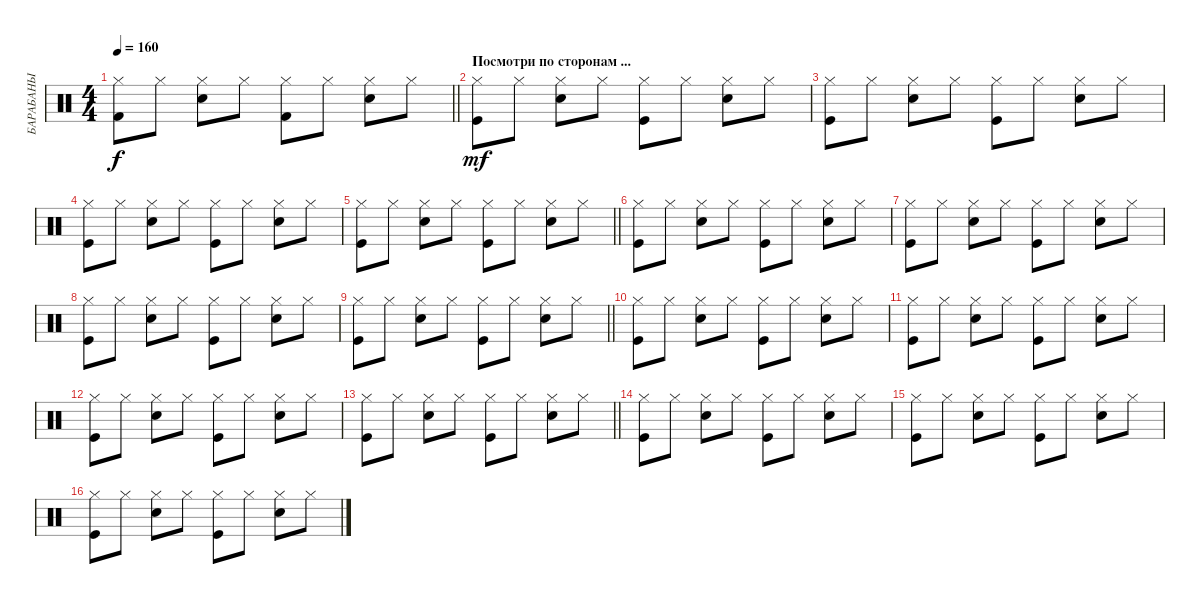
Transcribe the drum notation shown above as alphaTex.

\track ("БАРАБАНЫ" "БАРАБАНЫ") {instrument percussion}
\staff {score}
\articulation defaults
\ts (4 4)
\tempo 160
\clef neutral
\barLineRight lightlight
\ks c
("Hi-Hat (closed)" "Kick (hit) 2").8{dy f} "Hi-Hat (closed)".8 ("Hi-Hat (closed)" "Electric Snare (hit)").8 "Hi-Hat (closed)".8 ("Hi-Hat (closed)" "Kick (hit) 2").8 "Hi-Hat (closed)".8 ("Hi-Hat (closed)" "Electric Snare (hit)").8 "Hi-Hat (closed)".8 |
\section ("" "Посмотри по сторонам ...")
("Hi-Hat (closed)" "Kick (hit)").8{dy mf} "Hi-Hat (closed)".8 ("Hi-Hat (closed)" "Electric Snare (hit)").8 "Hi-Hat (closed)".8 ("Hi-Hat (closed)" "Kick (hit)").8 "Hi-Hat (closed)".8 ("Hi-Hat (closed)" "Electric Snare (hit)").8 "Hi-Hat (closed)".8 |
("Hi-Hat (closed)" "Kick (hit)").8 "Hi-Hat (closed)".8 ("Hi-Hat (closed)" "Electric Snare (hit)").8 "Hi-Hat (closed)".8 ("Hi-Hat (closed)" "Kick (hit)").8 "Hi-Hat (closed)".8 ("Hi-Hat (closed)" "Electric Snare (hit)").8 "Hi-Hat (closed)".8 |
("Hi-Hat (closed)" "Kick (hit)").8 "Hi-Hat (closed)".8 ("Hi-Hat (closed)" "Electric Snare (hit)").8 "Hi-Hat (closed)".8 ("Hi-Hat (closed)" "Kick (hit)").8 "Hi-Hat (closed)".8 ("Hi-Hat (closed)" "Electric Snare (hit)").8 "Hi-Hat (closed)".8 |
\barLineRight lightlight
("Hi-Hat (closed)" "Kick (hit)").8 "Hi-Hat (closed)".8 ("Hi-Hat (closed)" "Electric Snare (hit)").8 "Hi-Hat (closed)".8 ("Hi-Hat (closed)" "Kick (hit)").8 "Hi-Hat (closed)".8 ("Hi-Hat (closed)" "Electric Snare (hit)").8 "Hi-Hat (closed)".8 |
\section ("" "")
("Hi-Hat (closed)" "Kick (hit)").8 "Hi-Hat (closed)".8 ("Hi-Hat (closed)" "Electric Snare (hit)").8 "Hi-Hat (closed)".8 ("Hi-Hat (closed)" "Kick (hit)").8 "Hi-Hat (closed)".8 ("Hi-Hat (closed)" "Electric Snare (hit)").8 "Hi-Hat (closed)".8 |
("Hi-Hat (closed)" "Kick (hit)").8 "Hi-Hat (closed)".8 ("Hi-Hat (closed)" "Electric Snare (hit)").8 "Hi-Hat (closed)".8 ("Hi-Hat (closed)" "Kick (hit)").8 "Hi-Hat (closed)".8 ("Hi-Hat (closed)" "Electric Snare (hit)").8 "Hi-Hat (closed)".8 |
("Hi-Hat (closed)" "Kick (hit)").8 "Hi-Hat (closed)".8 ("Hi-Hat (closed)" "Electric Snare (hit)").8 "Hi-Hat (closed)".8 ("Hi-Hat (closed)" "Kick (hit)").8 "Hi-Hat (closed)".8 ("Hi-Hat (closed)" "Electric Snare (hit)").8 "Hi-Hat (closed)".8 |
\barLineRight lightlight
("Hi-Hat (closed)" "Kick (hit)").8 "Hi-Hat (closed)".8 ("Hi-Hat (closed)" "Electric Snare (hit)").8 "Hi-Hat (closed)".8 ("Hi-Hat (closed)" "Kick (hit)").8 "Hi-Hat (closed)".8 ("Hi-Hat (closed)" "Electric Snare (hit)").8 "Hi-Hat (closed)".8 |
("Hi-Hat (closed)" "Kick (hit)").8 "Hi-Hat (closed)".8 ("Hi-Hat (closed)" "Electric Snare (hit)").8 "Hi-Hat (closed)".8 ("Hi-Hat (closed)" "Kick (hit)").8 "Hi-Hat (closed)".8 ("Hi-Hat (closed)" "Electric Snare (hit)").8 "Hi-Hat (closed)".8 |
("Hi-Hat (closed)" "Kick (hit)").8 "Hi-Hat (closed)".8 ("Hi-Hat (closed)" "Electric Snare (hit)").8 "Hi-Hat (closed)".8 ("Hi-Hat (closed)" "Kick (hit)").8 "Hi-Hat (closed)".8 ("Hi-Hat (closed)" "Electric Snare (hit)").8 "Hi-Hat (closed)".8 |
("Hi-Hat (closed)" "Kick (hit)").8 "Hi-Hat (closed)".8 ("Hi-Hat (closed)" "Electric Snare (hit)").8 "Hi-Hat (closed)".8 ("Hi-Hat (closed)" "Kick (hit)").8 "Hi-Hat (closed)".8 ("Hi-Hat (closed)" "Electric Snare (hit)").8 "Hi-Hat (closed)".8 |
\barLineRight lightlight
("Hi-Hat (closed)" "Kick (hit)").8 "Hi-Hat (closed)".8 ("Hi-Hat (closed)" "Electric Snare (hit)").8 "Hi-Hat (closed)".8 ("Hi-Hat (closed)" "Kick (hit)").8 "Hi-Hat (closed)".8 ("Hi-Hat (closed)" "Electric Snare (hit)").8 "Hi-Hat (closed)".8 |
("Hi-Hat (closed)" "Kick (hit)").8 "Hi-Hat (closed)".8 ("Hi-Hat (closed)" "Electric Snare (hit)").8 "Hi-Hat (closed)".8 ("Hi-Hat (closed)" "Kick (hit)").8 "Hi-Hat (closed)".8 ("Hi-Hat (closed)" "Electric Snare (hit)").8 "Hi-Hat (closed)".8 |
("Hi-Hat (closed)" "Kick (hit)").8 "Hi-Hat (closed)".8 ("Hi-Hat (closed)" "Electric Snare (hit)").8 "Hi-Hat (closed)".8 ("Hi-Hat (closed)" "Kick (hit)").8 "Hi-Hat (closed)".8 ("Hi-Hat (closed)" "Electric Snare (hit)").8 "Hi-Hat (closed)".8 |
("Hi-Hat (closed)" "Kick (hit)").8 "Hi-Hat (closed)".8 ("Hi-Hat (closed)" "Electric Snare (hit)").8 "Hi-Hat (closed)".8 ("Hi-Hat (closed)" "Kick (hit)").8 "Hi-Hat (closed)".8 ("Hi-Hat (closed)" "Electric Snare (hit)").8 "Hi-Hat (closed)".8
